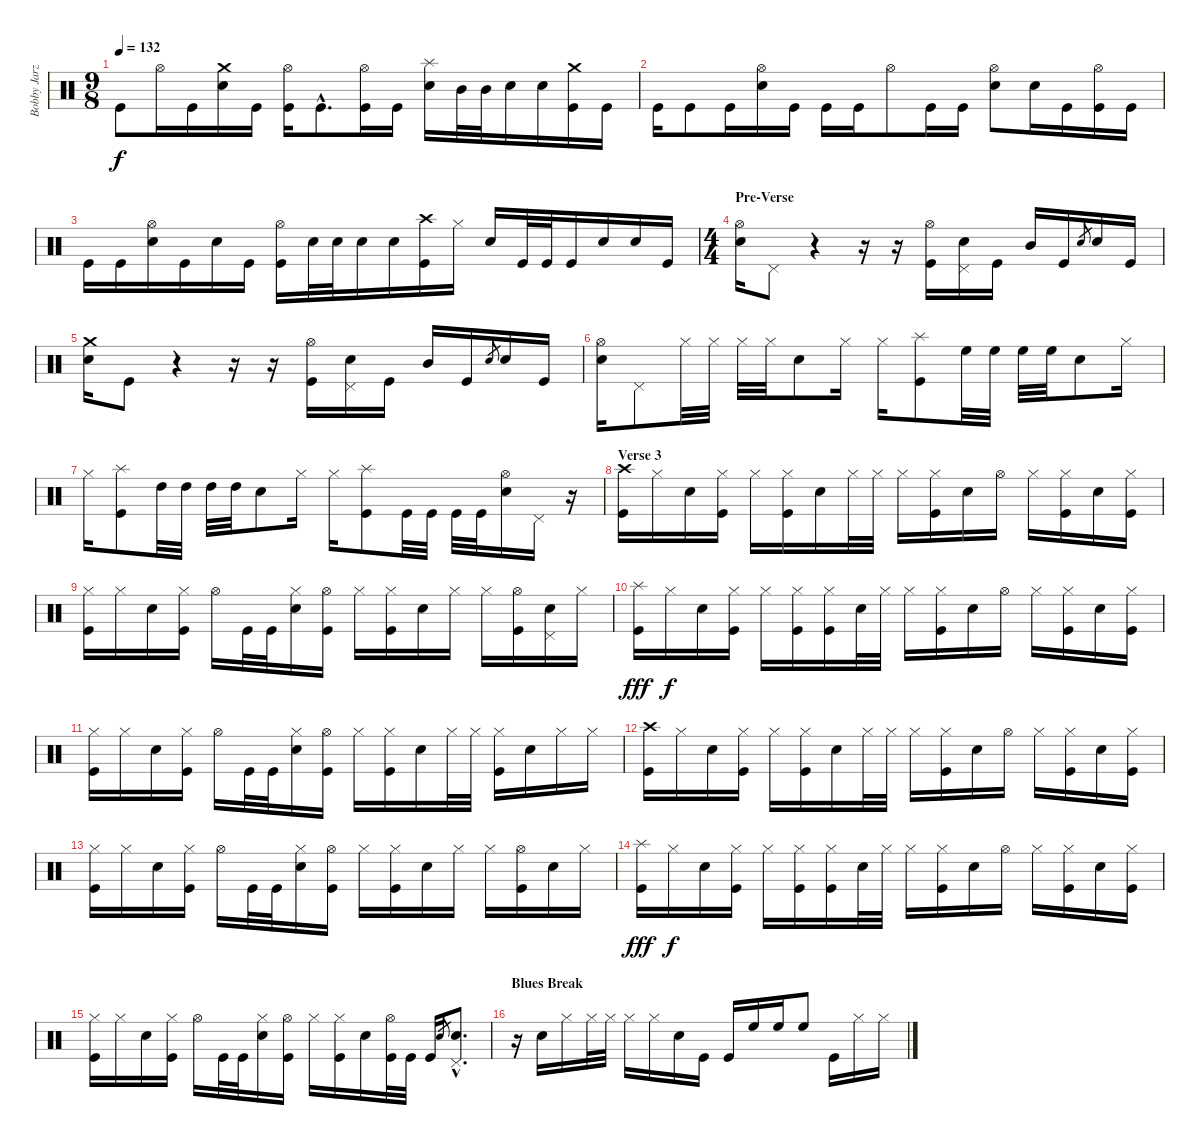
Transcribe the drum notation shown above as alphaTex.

\track ("Bobby Jarzombek" "Bobby Jarz") {instrument percussion}
\staff {score}
\articulation defaults
\ts (9 8)
\tempo 132
\clef neutral
\ks c "Kick (hit)".8{dy f} "Hi-Hat (open)".16 "Kick (hit)".16
("Crash medium (hit)" "Electric Snare (hit)").16 "Kick (hit)".16 ("Hi-Hat (open)" "Kick (hit)").16 "Kick (hit)"{hac}.8{d} ("Hi-Hat (open)" "Kick (hit)").16 "Kick (hit)".16 ("Splash (hit)" "Electric Snare (hit)").16 "Mid Tom (hit)".32 "Mid Tom (hit)".32 "Electric Snare (hit)".16 "Electric Snare (hit)".16 ("Crash medium (hit)" "Kick (hit)").16 "Kick (hit)".16 |
"Kick (hit)".16 "Kick (hit)".8 "Kick (hit)".16 ("Hi-Hat (open)" "Electric Snare (hit)").16 "Kick (hit)".16 "Kick (hit)".16 "Kick (hit)".16 "Hi-Hat (open)".8 "Kick (hit)".16 "Kick (hit)".16 ("Hi-Hat (open)" "Electric Snare (hit)").8 "Electric Snare (hit)".16 "Kick (hit)".16 ("Hi-Hat (open)" "Kick (hit)").16 "Kick (hit)".16 |
"Kick (hit)".16 "Kick (hit)".16 ("Hi-Hat (open)" "Electric Snare (hit)").16 "Kick (hit)".16 "Electric Snare (hit)".16 "Kick (hit)".16 ("Hi-Hat (open)" "Kick (hit)").16 "Electric Snare (hit)".32 "Electric Snare (hit)".32 "Electric Snare (hit)".16 "Electric Snare (hit)".16 ("Crash high (hit)" "Kick (hit)").16 "Hi-Hat (closed)".16 "Electric Snare (hit)".16 "Kick (hit)".32 "Kick (hit)".32 "Kick (hit)".16 "Electric Snare (hit)".16 "Electric Snare (hit)".16 "Kick (hit)".16 |
\ts (4 4)
\section ("" "Pre-Verse")
("Hi-Hat (open)" "Electric Snare (hit)").16 "Pedal Hi-Hat (hit)".8 r.4 r.16 r.16 ("Hi-Hat (open)" "Kick (hit)").16 ("Electric Snare (hit)" "Pedal Hi-Hat (hit)").16 "Kick (hit)".16 "Mid Tom (hit)".16 "Kick (hit)".16 "Electric Snare (hit)".8{gr} "Electric Snare (hit)".16 "Kick (hit)".16 |
("Crash medium (hit)" "Electric Snare (hit)").16 "Kick (hit)".8 r.4 r.16 r.16 ("Hi-Hat (open)" "Kick (hit)").16 ("Electric Snare (hit)" "Pedal Hi-Hat (hit)").16 "Kick (hit)".16 "Mid Tom (hit)".16 "Kick (hit)".16 "Electric Snare (hit)".8{gr} "Electric Snare (hit)".16 "Kick (hit)".16 |
("Hi-Hat (open)" "Electric Snare (hit)").16 "Pedal Hi-Hat (hit)".8 "Hi-Hat (closed)".32 "Hi-Hat (closed)".32 "Hi-Hat (closed)".32 "Hi-Hat (closed)".32 "Electric Snare (hit)".8 "Hi-Hat (closed)".16 "Hi-Hat (closed)".16 ("Splash (hit)" "Kick (hit)").8 "High Floor Tom (hit)".32 "High Floor Tom (hit)".32 "High Floor Tom (hit)".32 "High Floor Tom (hit)".32 "Electric Snare (hit)".8 "Hi-Hat (closed)".16 |
"Hi-Hat (closed)".16 ("Splash (hit)" "Kick (hit)").8 "High Tom (hit)".32 "High Tom (hit)".32 "High Tom (hit)".32 "High Tom (hit)".32 "Electric Snare (hit)".8 "Hi-Hat (closed)".16 "Hi-Hat (closed)".16 ("Splash (hit)" "Kick (hit)").8 "Kick (hit)".32 "Kick (hit)".32 "Kick (hit)".32 "Kick (hit)".32 ("Hi-Hat (open)" "Electric Snare (hit)").16 "Pedal Hi-Hat (hit)".16 r.16 |
\section ("" "Verse 3")
("Crash high (hit)" "Kick (hit)").16 "Hi-Hat (closed)".16 "Electric Snare (hit)".16 ("Hi-Hat (closed)" "Kick (hit)").16 "Hi-Hat (closed)".16 ("Hi-Hat (closed)" "Kick (hit)").16 "Electric Snare (hit)".16 "Hi-Hat (closed)".32 "Hi-Hat (closed)".32 "Hi-Hat (closed)".16 ("Hi-Hat (closed)" "Kick (hit)").16 "Electric Snare (hit)".16 "Hi-Hat (open)".16 "Hi-Hat (closed)".16 ("Hi-Hat (closed)" "Kick (hit)").16 "Electric Snare (hit)".16 ("Hi-Hat (closed)" "Kick (hit)").16 |
("Hi-Hat (closed)" "Kick (hit)").16 "Hi-Hat (closed)".16 "Electric Snare (hit)".16 ("Hi-Hat (closed)" "Kick (hit)").16 "Hi-Hat (open)".16 "Kick (hit)".32 "Kick (hit)".32 ("Hi-Hat (closed)" "Electric Snare (hit)").16 ("Hi-Hat (open)" "Kick (hit)").16 "Hi-Hat (closed)".16 ("Hi-Hat (closed)" "Kick (hit)").16 "Electric Snare (hit)".16 "Hi-Hat (closed)".16 "Hi-Hat (closed)".16 ("Hi-Hat (open)" "Kick (hit)").16 ("Electric Snare (hit)" "Pedal Hi-Hat (hit)").16 "Hi-Hat (closed)".16 |
("Splash (hit)" "Kick (hit)").16{dy fff} "Hi-Hat (closed)".16{dy f} "Electric Snare (hit)".16 ("Hi-Hat (closed)" "Kick (hit)").16 "Hi-Hat (closed)".16 ("Hi-Hat (closed)" "Kick (hit)").16 ("Hi-Hat (closed)" "Kick (hit)").16 "Electric Snare (hit)".32 "Hi-Hat (closed)".32 "Hi-Hat (closed)".16 ("Hi-Hat (closed)" "Kick (hit)").16 "Electric Snare (hit)".16 "Hi-Hat (open)".16 "Hi-Hat (closed)".16 ("Hi-Hat (closed)" "Kick (hit)").16 "Electric Snare (hit)".16 ("Hi-Hat (closed)" "Kick (hit)").16 |
("Hi-Hat (closed)" "Kick (hit)").16 "Hi-Hat (closed)".16 "Electric Snare (hit)".16 ("Hi-Hat (closed)" "Kick (hit)").16 "Hi-Hat (open)".16 "Kick (hit)".32 "Kick (hit)".32 ("Hi-Hat (closed)" "Electric Snare (hit)").16 ("Hi-Hat (open)" "Kick (hit)").16 "Hi-Hat (closed)".16 ("Hi-Hat (closed)" "Kick (hit)").16 "Electric Snare (hit)".16 "Hi-Hat (closed)".32 "Hi-Hat (closed)".32 ("Hi-Hat (closed)" "Kick (hit)").16 "Electric Snare (hit)".16 "Hi-Hat (closed)".16 "Hi-Hat (closed)".16 |
("Crash high (hit)" "Kick (hit)").16 "Hi-Hat (closed)".16 "Electric Snare (hit)".16 ("Hi-Hat (closed)" "Kick (hit)").16 "Hi-Hat (closed)".16 ("Hi-Hat (closed)" "Kick (hit)").16 "Electric Snare (hit)".16 "Hi-Hat (closed)".32 "Hi-Hat (closed)".32 "Hi-Hat (closed)".16 ("Hi-Hat (closed)" "Kick (hit)").16 "Electric Snare (hit)".16 "Hi-Hat (open)".16 "Hi-Hat (closed)".16 ("Hi-Hat (closed)" "Kick (hit)").16 "Electric Snare (hit)".16 ("Hi-Hat (closed)" "Kick (hit)").16 |
("Hi-Hat (closed)" "Kick (hit)").16 "Hi-Hat (closed)".16 "Electric Snare (hit)".16 ("Hi-Hat (closed)" "Kick (hit)").16 "Hi-Hat (open)".16 "Kick (hit)".32 "Kick (hit)".32 ("Hi-Hat (closed)" "Electric Snare (hit)").16 ("Hi-Hat (open)" "Kick (hit)").16 "Hi-Hat (closed)".16 ("Hi-Hat (closed)" "Kick (hit)").16 "Electric Snare (hit)".16 "Hi-Hat (closed)".16 "Hi-Hat (closed)".16 ("Hi-Hat (open)" "Kick (hit)").16 "Electric Snare (hit)".16 "Hi-Hat (closed)".16 |
("Splash (hit)" "Kick (hit)").16{dy fff} "Hi-Hat (closed)".16{dy f} "Electric Snare (hit)".16 ("Hi-Hat (closed)" "Kick (hit)").16 "Hi-Hat (closed)".16 ("Hi-Hat (closed)" "Kick (hit)").16 ("Hi-Hat (closed)" "Kick (hit)").16 "Electric Snare (hit)".32 "Hi-Hat (closed)".32 "Hi-Hat (closed)".16 ("Hi-Hat (closed)" "Kick (hit)").16 "Electric Snare (hit)".16 "Hi-Hat (open)".16 "Hi-Hat (closed)".16 ("Hi-Hat (closed)" "Kick (hit)").16 "Electric Snare (hit)".16 ("Hi-Hat (closed)" "Kick (hit)").16 |
("Hi-Hat (closed)" "Kick (hit)").16 "Hi-Hat (closed)".16 "Electric Snare (hit)".16 ("Hi-Hat (closed)" "Kick (hit)").16 "Hi-Hat (open)".16 "Kick (hit)".32 "Kick (hit)".32 ("Hi-Hat (closed)" "Electric Snare (hit)").16 ("Hi-Hat (open)" "Kick (hit)").16 "Hi-Hat (closed)".16 ("Hi-Hat (closed)" "Kick (hit)").16 "Electric Snare (hit)".16 ("Hi-Hat (open)" "Kick (hit)").32 "Kick (hit)".32 "Kick (hit)".16 "Electric Snare (hit)".8{gr} ("Electric Snare (hit)"{hac} "Pedal Hi-Hat (hit)"{hac}).8{d} |
\section ("" "Blues Break")
r.16 "Electric Snare (hit)".16 "Hi-Hat (closed)".16 "Hi-Hat (closed)".32 "Hi-Hat (closed)".32 "Hi-Hat (closed)".16 "Hi-Hat (closed)".16 "Electric Snare (hit)".16 "Kick (hit)".16 "Kick (hit)".16 "High Floor Tom (hit)".16 "High Floor Tom (hit)".16 "High Floor Tom (hit)".8 "Kick (hit)".16 "Hi-Hat (closed)".16 "Hi-Hat (closed)".16
